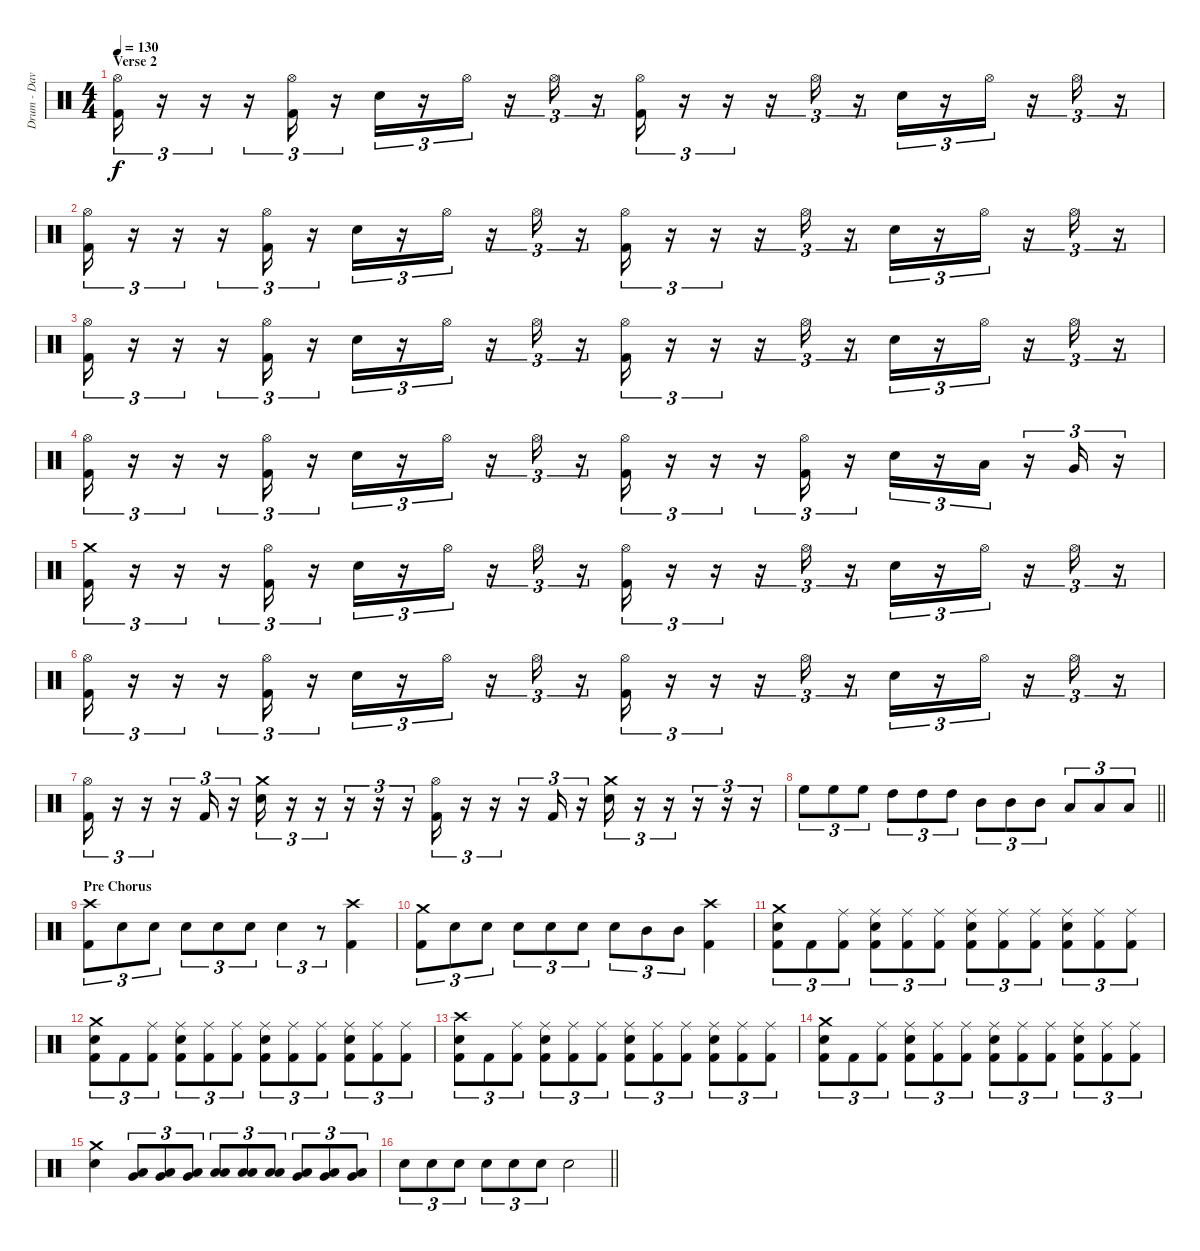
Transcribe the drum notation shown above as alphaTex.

\track ("Drum - Dave Mackintosh" "Drum - Dav") {instrument percussion}
\staff {score}
\articulation defaults
\ts (4 4)
\section ("" "Verse 2")
\tempo 130
\clef neutral
\ks c
("Hi-Hat (open)" "Kick (hit) 2").16{tu (3 2) dy f} r.16{tu (3 2)} r.16{tu (3 2)} r.16{tu (3 2)} ("Hi-Hat (open)" "Kick (hit) 2").16{tu (3 2)} r.16{tu (3 2)} "Electric Snare (hit)".16{tu (3 2)} r.16{tu (3 2)} "Hi-Hat (open)".16{tu (3 2)} r.16{tu (3 2)} "Hi-Hat (open)".16{tu (3 2)} r.16{tu (3 2)} ("Hi-Hat (open)" "Kick (hit) 2").16{tu (3 2)} r.16{tu (3 2)} r.16{tu (3 2)} r.16{tu (3 2)} "Hi-Hat (open)".16{tu (3 2)} r.16{tu (3 2)} "Electric Snare (hit)".16{tu (3 2)} r.16{tu (3 2)} "Hi-Hat (open)".16{tu (3 2)} r.16{tu (3 2)} "Hi-Hat (open)".16{tu (3 2)} r.16{tu (3 2)} |
("Hi-Hat (open)" "Kick (hit) 2").16{tu (3 2)} r.16{tu (3 2)} r.16{tu (3 2)} r.16{tu (3 2)} ("Hi-Hat (open)" "Kick (hit) 2").16{tu (3 2)} r.16{tu (3 2)} "Electric Snare (hit)".16{tu (3 2)} r.16{tu (3 2)} "Hi-Hat (open)".16{tu (3 2)} r.16{tu (3 2)} "Hi-Hat (open)".16{tu (3 2)} r.16{tu (3 2)} ("Hi-Hat (open)" "Kick (hit) 2").16{tu (3 2)} r.16{tu (3 2)} r.16{tu (3 2)} r.16{tu (3 2)} "Hi-Hat (open)".16{tu (3 2)} r.16{tu (3 2)} "Electric Snare (hit)".16{tu (3 2)} r.16{tu (3 2)} "Hi-Hat (open)".16{tu (3 2)} r.16{tu (3 2)} "Hi-Hat (open)".16{tu (3 2)} r.16{tu (3 2)} |
("Hi-Hat (open)" "Kick (hit) 2").16{tu (3 2)} r.16{tu (3 2)} r.16{tu (3 2)} r.16{tu (3 2)} ("Hi-Hat (open)" "Kick (hit) 2").16{tu (3 2)} r.16{tu (3 2)} "Electric Snare (hit)".16{tu (3 2)} r.16{tu (3 2)} "Hi-Hat (open)".16{tu (3 2)} r.16{tu (3 2)} "Hi-Hat (open)".16{tu (3 2)} r.16{tu (3 2)} ("Hi-Hat (open)" "Kick (hit) 2").16{tu (3 2)} r.16{tu (3 2)} r.16{tu (3 2)} r.16{tu (3 2)} "Hi-Hat (open)".16{tu (3 2)} r.16{tu (3 2)} "Electric Snare (hit)".16{tu (3 2)} r.16{tu (3 2)} "Hi-Hat (open)".16{tu (3 2)} r.16{tu (3 2)} "Hi-Hat (open)".16{tu (3 2)} r.16{tu (3 2)} |
("Hi-Hat (open)" "Kick (hit) 2").16{tu (3 2)} r.16{tu (3 2)} r.16{tu (3 2)} r.16{tu (3 2)} ("Hi-Hat (open)" "Kick (hit) 2").16{tu (3 2)} r.16{tu (3 2)} "Electric Snare (hit)".16{tu (3 2)} r.16{tu (3 2)} "Hi-Hat (open)".16{tu (3 2)} r.16{tu (3 2)} "Hi-Hat (open)".16{tu (3 2)} r.16{tu (3 2)} ("Hi-Hat (open)" "Kick (hit) 2").16{tu (3 2)} r.16{tu (3 2)} r.16{tu (3 2)} r.16{tu (3 2)} ("Hi-Hat (open)" "Kick (hit) 2").16{tu (3 2)} r.16{tu (3 2)} "Electric Snare (hit)".16{tu (3 2)} r.16{tu (3 2)} "Low Tom (hit)".16{tu (3 2)} r.16{tu (3 2)} "Very Low Tom (hit)".16{tu (3 2)} r.16{tu (3 2)} |
("Crash medium (hit)" "Kick (hit) 2").16{tu (3 2)} r.16{tu (3 2)} r.16{tu (3 2)} r.16{tu (3 2)} ("Hi-Hat (open)" "Kick (hit) 2").16{tu (3 2)} r.16{tu (3 2)} "Electric Snare (hit)".16{tu (3 2)} r.16{tu (3 2)} "Hi-Hat (open)".16{tu (3 2)} r.16{tu (3 2)} "Hi-Hat (open)".16{tu (3 2)} r.16{tu (3 2)} ("Hi-Hat (open)" "Kick (hit) 2").16{tu (3 2)} r.16{tu (3 2)} r.16{tu (3 2)} r.16{tu (3 2)} "Hi-Hat (open)".16{tu (3 2)} r.16{tu (3 2)} "Electric Snare (hit)".16{tu (3 2)} r.16{tu (3 2)} "Hi-Hat (open)".16{tu (3 2)} r.16{tu (3 2)} "Hi-Hat (open)".16{tu (3 2)} r.16{tu (3 2)} |
("Hi-Hat (open)" "Kick (hit) 2").16{tu (3 2)} r.16{tu (3 2)} r.16{tu (3 2)} r.16{tu (3 2)} ("Hi-Hat (open)" "Kick (hit) 2").16{tu (3 2)} r.16{tu (3 2)} "Electric Snare (hit)".16{tu (3 2)} r.16{tu (3 2)} "Hi-Hat (open)".16{tu (3 2)} r.16{tu (3 2)} "Hi-Hat (open)".16{tu (3 2)} r.16{tu (3 2)} ("Hi-Hat (open)" "Kick (hit) 2").16{tu (3 2)} r.16{tu (3 2)} r.16{tu (3 2)} r.16{tu (3 2)} "Hi-Hat (open)".16{tu (3 2)} r.16{tu (3 2)} "Electric Snare (hit)".16{tu (3 2)} r.16{tu (3 2)} "Hi-Hat (open)".16{tu (3 2)} r.16{tu (3 2)} "Hi-Hat (open)".16{tu (3 2)} r.16{tu (3 2)} |
("Hi-Hat (open)" "Kick (hit) 2").16{tu (3 2)} r.16{tu (3 2)} r.16{tu (3 2)} r.16{tu (3 2)} "Kick (hit) 2".16{tu (3 2)} r.16{tu (3 2)} ("Crash medium (hit)" "Electric Snare (hit)").16{tu (3 2)} r.16{tu (3 2)} r.16{tu (3 2)} r.16{tu (3 2)} r.16{tu (3 2)} r.16{tu (3 2)} ("Hi-Hat (open)" "Kick (hit) 2").16{tu (3 2)} r.16{tu (3 2)} r.16{tu (3 2)} r.16{tu (3 2)} "Kick (hit) 2".16{tu (3 2)} r.16{tu (3 2)} ("Crash medium (hit)" "Electric Snare (hit)").16{tu (3 2)} r.16{tu (3 2)} r.16{tu (3 2)} r.16{tu (3 2)} r.16{tu (3 2)} r.16{tu (3 2)} |
\barLineRight lightlight "High Floor Tom (hit)".8{tu (3 2)} "High Floor Tom (hit)".8{tu (3 2)} "High Floor Tom (hit)".8{tu (3 2)} "High Tom (hit)".8{tu (3 2)} "High Tom (hit)".8{tu (3 2)} "High Tom (hit)".8{tu (3 2)} "Mid Tom (hit)".8{tu (3 2)} "Mid Tom (hit)".8{tu (3 2)} "Mid Tom (hit)".8{tu (3 2)} "Low Tom (hit)".8{tu (3 2)} "Low Tom (hit)".8{tu (3 2)} "Low Tom (hit)".8{tu (3 2)}
|
\section ("" "Pre Chorus")
("Crash high (hit)" "Kick (hit) 2").8{tu (3 2)} "Electric Snare (hit)".8{tu (3 2)} "Electric Snare (hit)".8{tu (3 2)} "Electric Snare (hit)".8{tu (3 2)} "Electric Snare (hit)".8{tu (3 2)} "Electric Snare (hit)".8{tu (3 2)} "Electric Snare (hit)".4{tu (3 2)} r.8{tu (3 2)} ("Crash high (hit)" "Kick (hit) 2").4 |
("Crash medium (hit)" "Kick (hit) 2").8{tu (3 2)} "Electric Snare (hit)".8{tu (3 2)} "Electric Snare (hit)".8{tu (3 2)} "Electric Snare (hit)".8{tu (3 2)} "Electric Snare (hit)".8{tu (3 2)} "Electric Snare (hit)".8{tu (3 2)} "Electric Snare (hit)".8{tu (3 2)} "Mid Tom (hit)".8{tu (3 2)} "Mid Tom (hit)".8{tu (3 2)} ("Crash high (hit)" "Kick (hit) 2").4 |
("Crash medium (hit)" "Electric Snare (hit)" "Kick (hit) 2").8{tu (3 2)} "Kick (hit) 2".8{tu (3 2)} ("Ride (middle)" "Kick (hit) 2").8{tu (3 2)} ("Ride (middle)" "Electric Snare (hit)" "Kick (hit) 2").8{tu (3 2)} ("Ride (middle)" "Kick (hit) 2").8{tu (3 2)} ("Ride (middle)" "Kick (hit) 2").8{tu (3 2)} ("Ride (middle)" "Electric Snare (hit)" "Kick (hit) 2").8{tu (3 2)} ("Ride (middle)" "Kick (hit) 2").8{tu (3 2)} ("Ride (middle)" "Kick (hit) 2").8{tu (3 2)} ("Ride (middle)" "Electric Snare (hit)" "Kick (hit) 2").8{tu (3 2)} ("Ride (middle)" "Kick (hit) 2").8{tu (3 2)} ("Ride (middle)" "Kick (hit) 2").8{tu (3 2)} |
("Crash medium (hit)" "Electric Snare (hit)" "Kick (hit) 2").8{tu (3 2)} "Kick (hit) 2".8{tu (3 2)} ("Ride (middle)" "Kick (hit) 2").8{tu (3 2)} ("Ride (middle)" "Electric Snare (hit)" "Kick (hit) 2").8{tu (3 2)} ("Ride (middle)" "Kick (hit) 2").8{tu (3 2)} ("Ride (middle)" "Kick (hit) 2").8{tu (3 2)} ("Ride (middle)" "Electric Snare (hit)" "Kick (hit) 2").8{tu (3 2)} ("Ride (middle)" "Kick (hit) 2").8{tu (3 2)} ("Ride (middle)" "Kick (hit) 2").8{tu (3 2)} ("Ride (middle)" "Electric Snare (hit)" "Kick (hit) 2").8{tu (3 2)} ("Ride (middle)" "Kick (hit) 2").8{tu (3 2)} ("Ride (middle)" "Kick (hit) 2").8{tu (3 2)} |
("Crash high (hit)" "Electric Snare (hit)" "Kick (hit) 2").8{tu (3 2)} "Kick (hit) 2".8{tu (3 2)} ("Ride (middle)" "Kick (hit) 2").8{tu (3 2)} ("Ride (middle)" "Electric Snare (hit)" "Kick (hit) 2").8{tu (3 2)} ("Ride (middle)" "Kick (hit) 2").8{tu (3 2)} ("Ride (middle)" "Kick (hit) 2").8{tu (3 2)} ("Ride (middle)" "Electric Snare (hit)" "Kick (hit) 2").8{tu (3 2)} ("Ride (middle)" "Kick (hit) 2").8{tu (3 2)} ("Ride (middle)" "Kick (hit) 2").8{tu (3 2)} ("Ride (middle)" "Electric Snare (hit)" "Kick (hit) 2").8{tu (3 2)} ("Ride (middle)" "Kick (hit) 2").8{tu (3 2)} ("Ride (middle)" "Kick (hit) 2").8{tu (3 2)} |
("Crash medium (hit)" "Electric Snare (hit)" "Kick (hit) 2").8{tu (3 2)} "Kick (hit) 2".8{tu (3 2)} ("Ride (middle)" "Kick (hit) 2").8{tu (3 2)} ("Ride (middle)" "Electric Snare (hit)" "Kick (hit) 2").8{tu (3 2)} ("Ride (middle)" "Kick (hit) 2").8{tu (3 2)} ("Ride (middle)" "Kick (hit) 2").8{tu (3 2)} ("Ride (middle)" "Electric Snare (hit)" "Kick (hit) 2").8{tu (3 2)} ("Ride (middle)" "Kick (hit) 2").8{tu (3 2)} ("Ride (middle)" "Kick (hit) 2").8{tu (3 2)} ("Ride (middle)" "Electric Snare (hit)" "Kick (hit) 2").8{tu (3 2)} ("Ride (middle)" "Kick (hit) 2").8{tu (3 2)} ("Ride (middle)" "Kick (hit) 2").8{tu (3 2)} |
("Crash medium (hit)" "Electric Snare (hit)").4 ("Low Tom (hit)" "Very Low Tom (hit)").8{tu (3 2)} ("Low Tom (hit)" "Very Low Tom (hit)").8{tu (3 2)} ("Low Tom (hit)" "Very Low Tom (hit)").8{tu (3 2)} ("Low Tom (hit)" "Low Floor Tom (hit)").8{tu (3 2)} ("Low Tom (hit)" "Low Floor Tom (hit)").8{tu (3 2)} ("Low Tom (hit)" "Low Floor Tom (hit)").8{tu (3 2)} ("Very Low Tom (hit)" "Low Floor Tom (hit)").8{tu (3 2)} ("Very Low Tom (hit)" "Low Floor Tom (hit)").8{tu (3 2)} ("Very Low Tom (hit)" "Low Floor Tom (hit)").8{tu (3 2)} |
\barLineRight lightlight "Electric Snare (hit)".8{tu (3 2)} "Electric Snare (hit)".8{tu (3 2)} "Electric Snare (hit)".8{tu (3 2)} "Electric Snare (hit)".8{tu (3 2)} "Electric Snare (hit)".8{tu (3 2)} "Electric Snare (hit)".8{tu (3 2)} "Electric Snare (hit)".2
